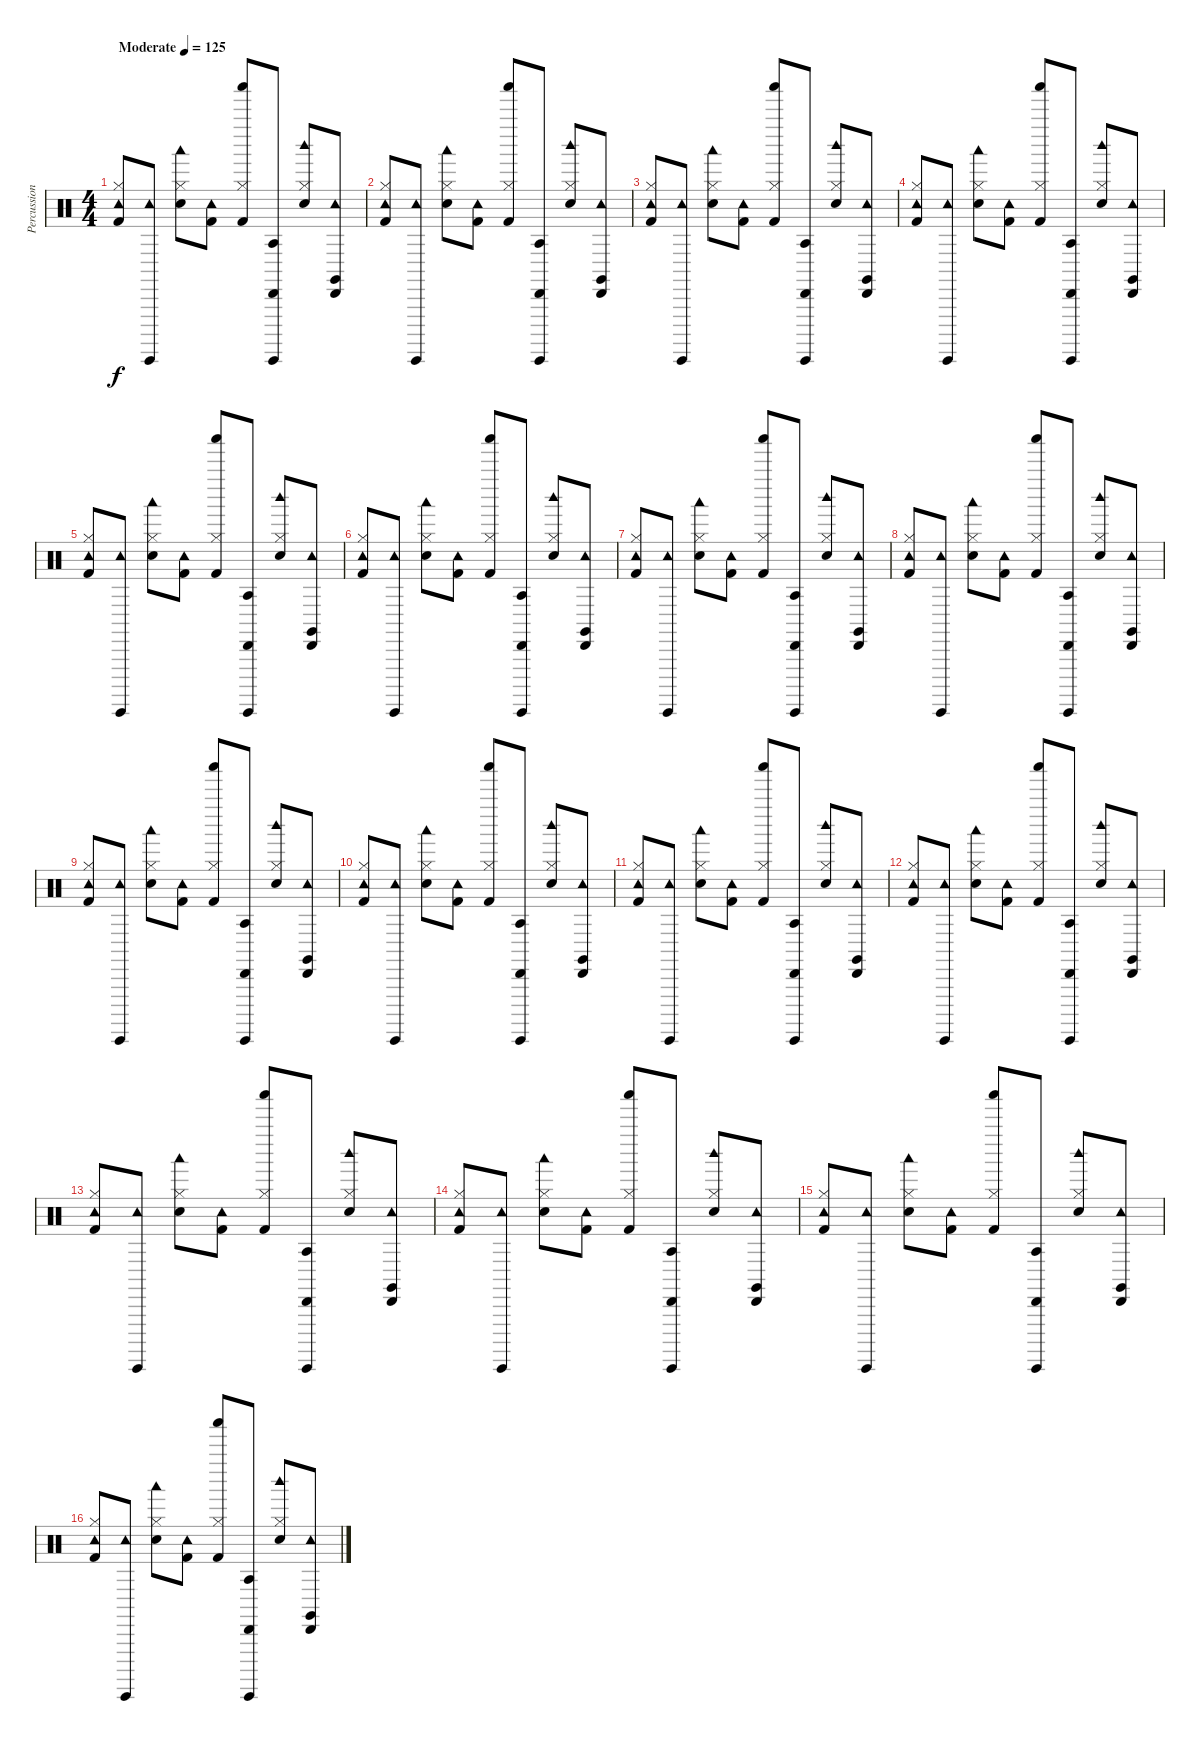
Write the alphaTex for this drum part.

\track ("Percussion" "Percussion") {instrument percussion}
\staff {score}
\articulation defaults
\ts (4 4)
\tempo (125 "Moderate")
\clef neutral
\ks c
("Tambourine (hit)" "Hi-Hat (closed)" "Kick (hit) 2").8{dy f} ("Tambourine (hit)" "Guiro (hit)").8 ("Electric Snare (hit)" "Hi-Hat (closed)" "Woodblock low (hit)").8 ("Tambourine (hit)" "Kick (hit) 2").8 ("Shaker (hit)" "Hi-Hat (closed)" "Kick (hit) 2").8 ("Cabasa (hit)" "Guiro (hit)" "Agogo tow (hit)").8 ("Electric Snare (hit)" "Hi-Hat (closed)" "Woodblock high (hit)").8 ("Tambourine (hit)" "Cabasa (hit)" "Claves (hit)").8 |
("Tambourine (hit)" "Hi-Hat (closed)" "Kick (hit) 2").8 ("Tambourine (hit)" "Guiro (hit)").8 ("Electric Snare (hit)" "Hi-Hat (closed)" "Woodblock low (hit)").8 ("Tambourine (hit)" "Kick (hit) 2").8 ("Shaker (hit)" "Hi-Hat (closed)" "Kick (hit) 2").8 ("Cabasa (hit)" "Guiro (hit)" "Agogo tow (hit)").8 ("Electric Snare (hit)" "Hi-Hat (closed)" "Woodblock high (hit)").8 ("Tambourine (hit)" "Cabasa (hit)" "Claves (hit)").8 |
("Tambourine (hit)" "Hi-Hat (closed)" "Kick (hit) 2").8 ("Tambourine (hit)" "Guiro (hit)").8 ("Electric Snare (hit)" "Hi-Hat (closed)" "Woodblock low (hit)").8 ("Tambourine (hit)" "Kick (hit) 2").8 ("Shaker (hit)" "Hi-Hat (closed)" "Kick (hit) 2").8 ("Cabasa (hit)" "Guiro (hit)" "Agogo tow (hit)").8 ("Electric Snare (hit)" "Hi-Hat (closed)" "Woodblock high (hit)").8 ("Tambourine (hit)" "Cabasa (hit)" "Claves (hit)").8 |
("Tambourine (hit)" "Hi-Hat (closed)" "Kick (hit) 2").8 ("Tambourine (hit)" "Guiro (hit)").8 ("Electric Snare (hit)" "Hi-Hat (closed)" "Woodblock low (hit)").8 ("Tambourine (hit)" "Kick (hit) 2").8 ("Shaker (hit)" "Hi-Hat (closed)" "Kick (hit) 2").8 ("Cabasa (hit)" "Guiro (hit)" "Agogo tow (hit)").8 ("Electric Snare (hit)" "Hi-Hat (closed)" "Woodblock high (hit)").8 ("Tambourine (hit)" "Cabasa (hit)" "Claves (hit)").8 |
("Tambourine (hit)" "Hi-Hat (closed)" "Kick (hit) 2").8 ("Tambourine (hit)" "Guiro (hit)").8 ("Electric Snare (hit)" "Hi-Hat (closed)" "Woodblock low (hit)").8 ("Tambourine (hit)" "Kick (hit) 2").8 ("Shaker (hit)" "Hi-Hat (closed)" "Kick (hit) 2").8 ("Cabasa (hit)" "Guiro (hit)" "Agogo tow (hit)").8 ("Electric Snare (hit)" "Hi-Hat (closed)" "Woodblock high (hit)").8 ("Tambourine (hit)" "Cabasa (hit)" "Claves (hit)").8 |
("Tambourine (hit)" "Hi-Hat (closed)" "Kick (hit) 2").8 ("Tambourine (hit)" "Guiro (hit)").8 ("Electric Snare (hit)" "Hi-Hat (closed)" "Woodblock low (hit)").8 ("Tambourine (hit)" "Kick (hit) 2").8 ("Shaker (hit)" "Hi-Hat (closed)" "Kick (hit) 2").8 ("Cabasa (hit)" "Guiro (hit)" "Agogo tow (hit)").8 ("Electric Snare (hit)" "Hi-Hat (closed)" "Woodblock high (hit)").8 ("Tambourine (hit)" "Cabasa (hit)" "Claves (hit)").8 |
("Tambourine (hit)" "Hi-Hat (closed)" "Kick (hit) 2").8 ("Tambourine (hit)" "Guiro (hit)").8 ("Electric Snare (hit)" "Hi-Hat (closed)" "Woodblock low (hit)").8 ("Tambourine (hit)" "Kick (hit) 2").8 ("Shaker (hit)" "Hi-Hat (closed)" "Kick (hit) 2").8 ("Cabasa (hit)" "Guiro (hit)" "Agogo tow (hit)").8 ("Electric Snare (hit)" "Hi-Hat (closed)" "Woodblock high (hit)").8 ("Tambourine (hit)" "Cabasa (hit)" "Claves (hit)").8 |
("Tambourine (hit)" "Hi-Hat (closed)" "Kick (hit) 2").8 ("Tambourine (hit)" "Guiro (hit)").8 ("Electric Snare (hit)" "Hi-Hat (closed)" "Woodblock low (hit)").8 ("Tambourine (hit)" "Kick (hit) 2").8 ("Shaker (hit)" "Hi-Hat (closed)" "Kick (hit) 2").8 ("Cabasa (hit)" "Guiro (hit)" "Agogo tow (hit)").8 ("Electric Snare (hit)" "Hi-Hat (closed)" "Woodblock high (hit)").8 ("Tambourine (hit)" "Cabasa (hit)" "Claves (hit)").8 |
("Tambourine (hit)" "Hi-Hat (closed)" "Kick (hit) 2").8 ("Tambourine (hit)" "Guiro (hit)").8 ("Electric Snare (hit)" "Hi-Hat (closed)" "Woodblock low (hit)").8 ("Tambourine (hit)" "Kick (hit) 2").8 ("Shaker (hit)" "Hi-Hat (closed)" "Kick (hit) 2").8 ("Cabasa (hit)" "Guiro (hit)" "Agogo tow (hit)").8 ("Electric Snare (hit)" "Hi-Hat (closed)" "Woodblock high (hit)").8 ("Tambourine (hit)" "Cabasa (hit)" "Claves (hit)").8 |
("Tambourine (hit)" "Hi-Hat (closed)" "Kick (hit) 2").8 ("Tambourine (hit)" "Guiro (hit)").8 ("Electric Snare (hit)" "Hi-Hat (closed)" "Woodblock low (hit)").8 ("Tambourine (hit)" "Kick (hit) 2").8 ("Shaker (hit)" "Hi-Hat (closed)" "Kick (hit) 2").8 ("Cabasa (hit)" "Guiro (hit)" "Agogo tow (hit)").8 ("Electric Snare (hit)" "Hi-Hat (closed)" "Woodblock high (hit)").8 ("Tambourine (hit)" "Cabasa (hit)" "Claves (hit)").8 |
("Tambourine (hit)" "Hi-Hat (closed)" "Kick (hit) 2").8 ("Tambourine (hit)" "Guiro (hit)").8 ("Electric Snare (hit)" "Hi-Hat (closed)" "Woodblock low (hit)").8 ("Tambourine (hit)" "Kick (hit) 2").8 ("Shaker (hit)" "Hi-Hat (closed)" "Kick (hit) 2").8 ("Cabasa (hit)" "Guiro (hit)" "Agogo tow (hit)").8 ("Electric Snare (hit)" "Hi-Hat (closed)" "Woodblock high (hit)").8 ("Tambourine (hit)" "Cabasa (hit)" "Claves (hit)").8 |
("Tambourine (hit)" "Hi-Hat (closed)" "Kick (hit) 2").8 ("Tambourine (hit)" "Guiro (hit)").8 ("Electric Snare (hit)" "Hi-Hat (closed)" "Woodblock low (hit)").8 ("Tambourine (hit)" "Kick (hit) 2").8 ("Shaker (hit)" "Hi-Hat (closed)" "Kick (hit) 2").8 ("Cabasa (hit)" "Guiro (hit)" "Agogo tow (hit)").8 ("Electric Snare (hit)" "Hi-Hat (closed)" "Woodblock high (hit)").8 ("Tambourine (hit)" "Cabasa (hit)" "Claves (hit)").8 |
("Tambourine (hit)" "Hi-Hat (closed)" "Kick (hit) 2").8 ("Tambourine (hit)" "Guiro (hit)").8 ("Electric Snare (hit)" "Hi-Hat (closed)" "Woodblock low (hit)").8 ("Tambourine (hit)" "Kick (hit) 2").8 ("Shaker (hit)" "Hi-Hat (closed)" "Kick (hit) 2").8 ("Cabasa (hit)" "Guiro (hit)" "Agogo tow (hit)").8 ("Electric Snare (hit)" "Hi-Hat (closed)" "Woodblock high (hit)").8 ("Tambourine (hit)" "Cabasa (hit)" "Claves (hit)").8 |
("Tambourine (hit)" "Hi-Hat (closed)" "Kick (hit) 2").8 ("Tambourine (hit)" "Guiro (hit)").8 ("Electric Snare (hit)" "Hi-Hat (closed)" "Woodblock low (hit)").8 ("Tambourine (hit)" "Kick (hit) 2").8 ("Shaker (hit)" "Hi-Hat (closed)" "Kick (hit) 2").8 ("Cabasa (hit)" "Guiro (hit)" "Agogo tow (hit)").8 ("Electric Snare (hit)" "Hi-Hat (closed)" "Woodblock high (hit)").8 ("Tambourine (hit)" "Cabasa (hit)" "Claves (hit)").8 |
("Tambourine (hit)" "Hi-Hat (closed)" "Kick (hit) 2").8 ("Tambourine (hit)" "Guiro (hit)").8 ("Electric Snare (hit)" "Hi-Hat (closed)" "Woodblock low (hit)").8 ("Tambourine (hit)" "Kick (hit) 2").8 ("Shaker (hit)" "Hi-Hat (closed)" "Kick (hit) 2").8 ("Cabasa (hit)" "Guiro (hit)" "Agogo tow (hit)").8 ("Electric Snare (hit)" "Hi-Hat (closed)" "Woodblock high (hit)").8 ("Tambourine (hit)" "Cabasa (hit)" "Claves (hit)").8 |
("Tambourine (hit)" "Hi-Hat (closed)" "Kick (hit) 2").8 ("Tambourine (hit)" "Guiro (hit)").8 ("Electric Snare (hit)" "Hi-Hat (closed)" "Woodblock low (hit)").8 ("Tambourine (hit)" "Kick (hit) 2").8 ("Shaker (hit)" "Hi-Hat (closed)" "Kick (hit) 2").8 ("Cabasa (hit)" "Guiro (hit)" "Agogo tow (hit)").8 ("Electric Snare (hit)" "Hi-Hat (closed)" "Woodblock high (hit)").8 ("Tambourine (hit)" "Cabasa (hit)" "Claves (hit)").8
